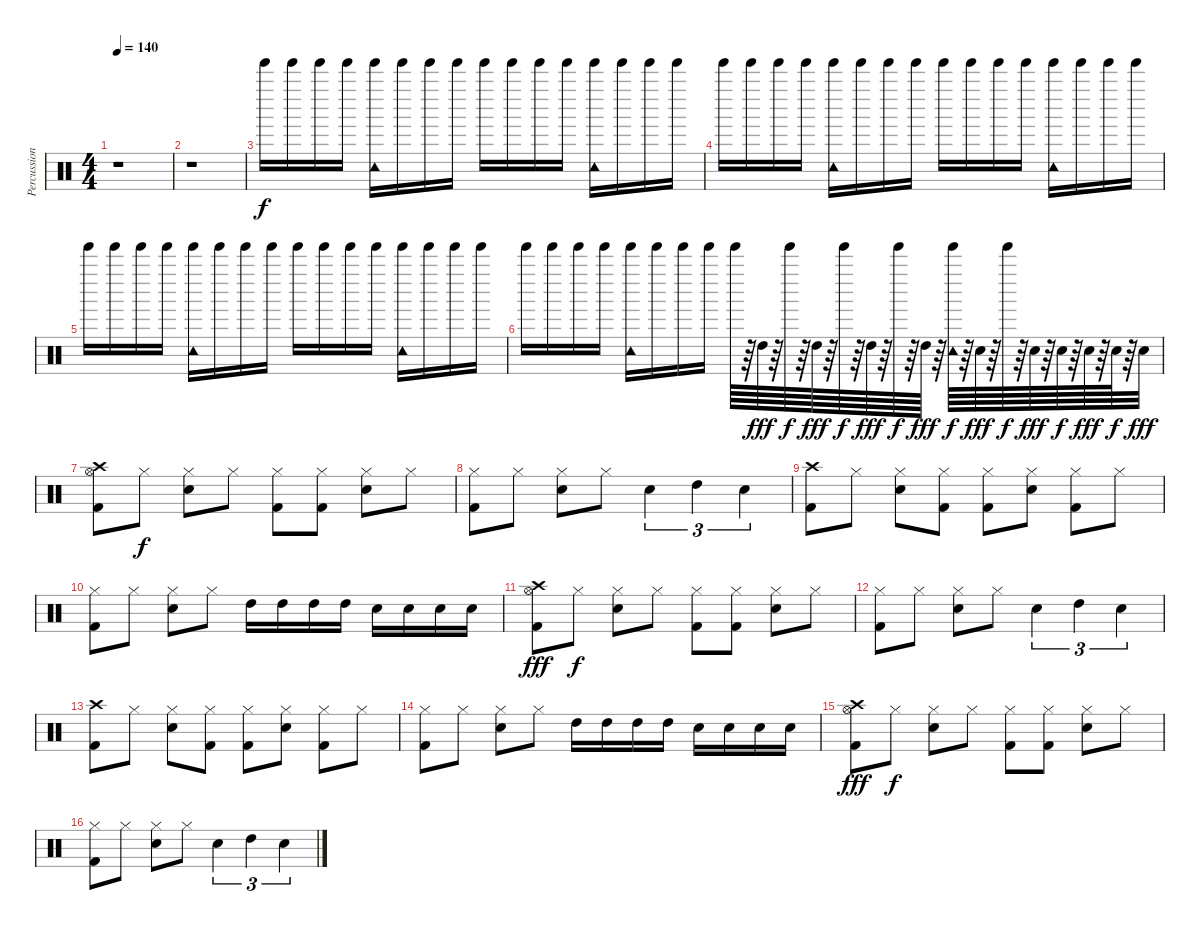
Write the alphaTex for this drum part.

\track ("Percussion" "Percussion") {instrument percussion}
\staff {score}
\articulation defaults
\ts (4 4)
\tempo 140
\clef neutral
\ks c
r.1{dy f} |
r.1 |
"Tinkle Bell (hit)".16 "Tinkle Bell (hit)".16 "Tinkle Bell (hit)".16 "Tinkle Bell (hit)".16 ("Tinkle Bell (hit)" "Tambourine (hit)").16 "Tinkle Bell (hit)".16 "Tinkle Bell (hit)".16 "Tinkle Bell (hit)".16 "Tinkle Bell (hit)".16 "Tinkle Bell (hit)".16 "Tinkle Bell (hit)".16 "Tinkle Bell (hit)".16 ("Tinkle Bell (hit)" "Tambourine (hit)").16 "Tinkle Bell (hit)".16 "Tinkle Bell (hit)".16 "Tinkle Bell (hit)".16 |
"Tinkle Bell (hit)".16 "Tinkle Bell (hit)".16 "Tinkle Bell (hit)".16 "Tinkle Bell (hit)".16 ("Tinkle Bell (hit)" "Tambourine (hit)").16 "Tinkle Bell (hit)".16 "Tinkle Bell (hit)".16 "Tinkle Bell (hit)".16 "Tinkle Bell (hit)".16 "Tinkle Bell (hit)".16 "Tinkle Bell (hit)".16 "Tinkle Bell (hit)".16 ("Tinkle Bell (hit)" "Tambourine (hit)").16 "Tinkle Bell (hit)".16 "Tinkle Bell (hit)".16 "Tinkle Bell (hit)".16 |
"Tinkle Bell (hit)".16 "Tinkle Bell (hit)".16 "Tinkle Bell (hit)".16 "Tinkle Bell (hit)".16 ("Tinkle Bell (hit)" "Tambourine (hit)").16 "Tinkle Bell (hit)".16 "Tinkle Bell (hit)".16 "Tinkle Bell (hit)".16 "Tinkle Bell (hit)".16 "Tinkle Bell (hit)".16 "Tinkle Bell (hit)".16 "Tinkle Bell (hit)".16 ("Tinkle Bell (hit)" "Tambourine (hit)").16 "Tinkle Bell (hit)".16 "Tinkle Bell (hit)".16 "Tinkle Bell (hit)".16 |
"Tinkle Bell (hit)".16 "Tinkle Bell (hit)".16 "Tinkle Bell (hit)".16 "Tinkle Bell (hit)".16 ("Tinkle Bell (hit)" "Tambourine (hit)").16 "Tinkle Bell (hit)".16 "Tinkle Bell (hit)".16 "Tinkle Bell (hit)".16 "Tinkle Bell (hit)".64 r.64 "High Tom (hit)".64{dy fff} r.64 "Tinkle Bell (hit)".64{dy f} r.64 "High Tom (hit)".64{dy fff} r.64 "Tinkle Bell (hit)".64{dy f} r.64 "High Tom (hit)".64{dy fff} r.64 "Tinkle Bell (hit)".64{dy f} r.64 "High Tom (hit)".64{dy fff} r.64 ("Tinkle Bell (hit)" "Tambourine (hit)").64{dy f} r.64 "Snare (hit) 2".64{dy fff} r.64 "Tinkle Bell (hit)".64{dy f} r.64 "Snare (hit) 2".64{dy fff} r.64 "Snare (hit) 2".64{dy f} r.64 "Snare (hit) 2".64{dy fff} r.64 "Snare (hit) 2".64{dy f} r.64 "Snare (hit) 2".32{dy fff} |
("Hi-Hat (open)" "Crash high (hit)" "Kick (hit) 2").8 "Hi-Hat (closed)".8{dy f} ("Hi-Hat (closed)" "Snare (hit) 2").8 "Hi-Hat (closed)".8 ("Hi-Hat (closed)" "Kick (hit) 2").8 ("Hi-Hat (closed)" "Kick (hit) 2").8 ("Hi-Hat (closed)" "Snare (hit) 2").8 "Hi-Hat (closed)".8 |
("Hi-Hat (closed)" "Kick (hit) 2").8 "Hi-Hat (closed)".8 ("Hi-Hat (closed)" "Snare (hit) 2").8 "Hi-Hat (closed)".8 "Snare (hit) 2".4{tu (3 2)} "High Tom (hit)".4{tu (3 2)} "Snare (hit) 2".4{tu (3 2)} |
("Crash high (hit)" "Kick (hit) 2").8 "Hi-Hat (closed)".8 ("Hi-Hat (closed)" "Snare (hit) 2").8 ("Hi-Hat (closed)" "Kick (hit) 2").8 ("Hi-Hat (closed)" "Kick (hit) 2").8 ("Hi-Hat (closed)" "Snare (hit) 2").8 ("Hi-Hat (closed)" "Kick (hit) 2").8 "Hi-Hat (closed)".8 |
("Hi-Hat (closed)" "Kick (hit) 2").8 "Hi-Hat (closed)".8 ("Hi-Hat (closed)" "Snare (hit) 2").8 "Hi-Hat (closed)".8 "High Tom (hit)".16 "High Tom (hit)".16 "High Tom (hit)".16 "High Tom (hit)".16 "Snare (hit) 2".16 "Snare (hit) 2".16 "Snare (hit) 2".16 "Snare (hit) 2".16 |
("Hi-Hat (open)" "Crash high (hit)" "Kick (hit) 2").8{dy fff} "Hi-Hat (closed)".8{dy f} ("Hi-Hat (closed)" "Snare (hit) 2").8 "Hi-Hat (closed)".8 ("Hi-Hat (closed)" "Kick (hit) 2").8 ("Hi-Hat (closed)" "Kick (hit) 2").8 ("Hi-Hat (closed)" "Snare (hit) 2").8 "Hi-Hat (closed)".8 |
("Hi-Hat (closed)" "Kick (hit) 2").8 "Hi-Hat (closed)".8 ("Hi-Hat (closed)" "Snare (hit) 2").8 "Hi-Hat (closed)".8 "Snare (hit) 2".4{tu (3 2)} "High Tom (hit)".4{tu (3 2)} "Snare (hit) 2".4{tu (3 2)} |
("Crash high (hit)" "Kick (hit) 2").8 "Hi-Hat (closed)".8 ("Hi-Hat (closed)" "Snare (hit) 2").8 ("Hi-Hat (closed)" "Kick (hit) 2").8 ("Hi-Hat (closed)" "Kick (hit) 2").8 ("Hi-Hat (closed)" "Snare (hit) 2").8 ("Hi-Hat (closed)" "Kick (hit) 2").8 "Hi-Hat (closed)".8 |
("Hi-Hat (closed)" "Kick (hit) 2").8 "Hi-Hat (closed)".8 ("Hi-Hat (closed)" "Snare (hit) 2").8 "Hi-Hat (closed)".8 "High Tom (hit)".16 "High Tom (hit)".16 "High Tom (hit)".16 "High Tom (hit)".16 "Snare (hit) 2".16 "Snare (hit) 2".16 "Snare (hit) 2".16 "Snare (hit) 2".16 |
("Hi-Hat (open)" "Crash high (hit)" "Kick (hit) 2").8{dy fff} "Hi-Hat (closed)".8{dy f} ("Hi-Hat (closed)" "Snare (hit) 2").8 "Hi-Hat (closed)".8 ("Hi-Hat (closed)" "Kick (hit) 2").8 ("Hi-Hat (closed)" "Kick (hit) 2").8 ("Hi-Hat (closed)" "Snare (hit) 2").8 "Hi-Hat (closed)".8 |
("Hi-Hat (closed)" "Kick (hit) 2").8{volume 0} "Hi-Hat (closed)".8 ("Hi-Hat (closed)" "Snare (hit) 2").8 "Hi-Hat (closed)".8 "Snare (hit) 2".4{tu (3 2)} "High Tom (hit)".4{tu (3 2)} "Snare (hit) 2".4{tu (3 2)}
